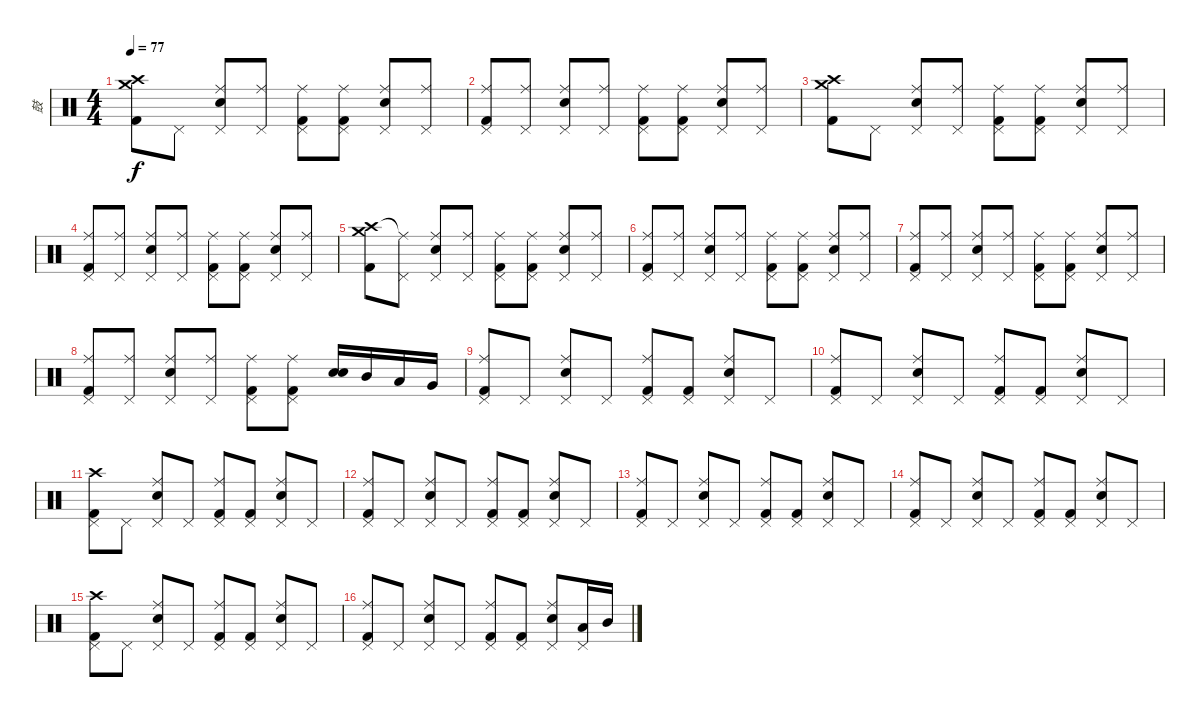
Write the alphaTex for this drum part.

\track ("鼓" "鼓") {instrument percussion}
\staff {score}
\articulation defaults
\ts (4 4)
\tempo 77
\clef neutral
\ks c
("Crash medium (hit)" "Crash high (hit)" "Kick (hit) 2").8{dy f} "Pedal Hi-Hat (hit)".8 ("Ride (middle)" "Pedal Hi-Hat (hit)" "Electric Snare (hit)").8 ("Ride (middle)" "Pedal Hi-Hat (hit)").8 ("Ride (middle)" "Pedal Hi-Hat (hit)" "Kick (hit) 2").8 ("Ride (middle)" "Pedal Hi-Hat (hit)" "Kick (hit) 2").8 ("Ride (middle)" "Pedal Hi-Hat (hit)" "Electric Snare (hit)").8 ("Ride (middle)" "Pedal Hi-Hat (hit)").8 |
("Ride (middle)" "Pedal Hi-Hat (hit)" "Kick (hit) 2").8 ("Ride (middle)" "Pedal Hi-Hat (hit)").8 ("Ride (middle)" "Pedal Hi-Hat (hit)" "Electric Snare (hit)").8 ("Ride (middle)" "Pedal Hi-Hat (hit)").8 ("Ride (middle)" "Pedal Hi-Hat (hit)" "Kick (hit) 2").8 ("Ride (middle)" "Pedal Hi-Hat (hit)" "Kick (hit) 2").8 ("Ride (middle)" "Pedal Hi-Hat (hit)" "Electric Snare (hit)").8 ("Ride (middle)" "Pedal Hi-Hat (hit)").8 |
("Crash high (hit)" "Crash medium (hit)" "Kick (hit) 2").8 "Pedal Hi-Hat (hit)".8 ("Ride (middle)" "Pedal Hi-Hat (hit)" "Electric Snare (hit)").8 ("Ride (middle)" "Pedal Hi-Hat (hit)").8 ("Ride (middle)" "Pedal Hi-Hat (hit)" "Kick (hit) 2").8 ("Ride (middle)" "Pedal Hi-Hat (hit)" "Kick (hit) 2").8 ("Ride (middle)" "Pedal Hi-Hat (hit)" "Electric Snare (hit)").8 ("Ride (middle)" "Pedal Hi-Hat (hit)").8 |
("Ride (middle)" "Pedal Hi-Hat (hit)" "Kick (hit) 2").8 ("Ride (middle)" "Pedal Hi-Hat (hit)").8 ("Ride (middle)" "Pedal Hi-Hat (hit)" "Electric Snare (hit)").8 ("Ride (middle)" "Pedal Hi-Hat (hit)").8 ("Ride (middle)" "Pedal Hi-Hat (hit)" "Kick (hit) 2").8 ("Ride (middle)" "Pedal Hi-Hat (hit)" "Kick (hit) 2").8 ("Ride (middle)" "Pedal Hi-Hat (hit)" "Electric Snare (hit)").8 ("Ride (middle)" "Pedal Hi-Hat (hit)").8 |
("Crash high (hit)" "Crash medium (hit)" "Kick (hit) 2").8 ("Ride (middle)"{t} "Pedal Hi-Hat (hit)").8 ("Ride (middle)" "Pedal Hi-Hat (hit)" "Electric Snare (hit)").8 ("Ride (middle)" "Pedal Hi-Hat (hit)").8 ("Ride (middle)" "Pedal Hi-Hat (hit)" "Kick (hit) 2").8 ("Ride (middle)" "Pedal Hi-Hat (hit)" "Kick (hit) 2").8 ("Ride (middle)" "Pedal Hi-Hat (hit)" "Electric Snare (hit)").8 ("Ride (middle)" "Pedal Hi-Hat (hit)").8 |
("Ride (middle)" "Pedal Hi-Hat (hit)" "Kick (hit) 2").8 ("Ride (middle)" "Pedal Hi-Hat (hit)").8 ("Ride (middle)" "Pedal Hi-Hat (hit)" "Electric Snare (hit)").8 ("Ride (middle)" "Pedal Hi-Hat (hit)").8 ("Ride (middle)" "Pedal Hi-Hat (hit)" "Kick (hit) 2").8 ("Ride (middle)" "Pedal Hi-Hat (hit)" "Kick (hit) 2").8 ("Ride (middle)" "Pedal Hi-Hat (hit)" "Electric Snare (hit)").8 ("Ride (middle)" "Pedal Hi-Hat (hit)").8 |
("Ride (middle)" "Pedal Hi-Hat (hit)" "Kick (hit) 2").8 ("Ride (middle)" "Pedal Hi-Hat (hit)").8 ("Ride (middle)" "Pedal Hi-Hat (hit)" "Electric Snare (hit)").8 ("Ride (middle)" "Pedal Hi-Hat (hit)").8 ("Ride (middle)" "Pedal Hi-Hat (hit)" "Kick (hit) 2").8 ("Ride (middle)" "Pedal Hi-Hat (hit)" "Kick (hit) 2").8 ("Ride (middle)" "Pedal Hi-Hat (hit)" "Electric Snare (hit)").8 ("Ride (middle)" "Pedal Hi-Hat (hit)").8 |
("Ride (middle)" "Pedal Hi-Hat (hit)" "Kick (hit) 2").8 ("Ride (middle)" "Pedal Hi-Hat (hit)").8 ("Ride (middle)" "Pedal Hi-Hat (hit)" "Electric Snare (hit)").8 ("Ride (middle)" "Pedal Hi-Hat (hit)").8 ("Ride (middle)" "Pedal Hi-Hat (hit)" "Kick (hit) 2").8 ("Ride (middle)" "Pedal Hi-Hat (hit)" "Kick (hit) 2").8 ("Electric Snare (hit)" "Electric Snare (hit)").16 "Mid Tom (hit)".16 "Low Tom (hit)".16 "Very Low Tom (hit)".16 |
("Ride (middle)" "Pedal Hi-Hat (hit)" "Kick (hit) 2").8 "Pedal Hi-Hat (hit)".8 ("Ride (middle)" "Pedal Hi-Hat (hit)" "Electric Snare (hit)").8 "Pedal Hi-Hat (hit)".8 ("Ride (middle)" "Pedal Hi-Hat (hit)" "Kick (hit) 2").8 ("Pedal Hi-Hat (hit)" "Kick (hit) 2").8 ("Ride (middle)" "Pedal Hi-Hat (hit)" "Electric Snare (hit)").8 "Pedal Hi-Hat (hit)".8 |
("Ride (middle)" "Pedal Hi-Hat (hit)" "Kick (hit) 2").8 "Pedal Hi-Hat (hit)".8 ("Ride (middle)" "Pedal Hi-Hat (hit)" "Electric Snare (hit)").8 "Pedal Hi-Hat (hit)".8 ("Ride (middle)" "Pedal Hi-Hat (hit)" "Kick (hit) 2").8 ("Pedal Hi-Hat (hit)" "Kick (hit) 2").8 ("Ride (middle)" "Pedal Hi-Hat (hit)" "Electric Snare (hit)").8 "Pedal Hi-Hat (hit)".8 |
("Crash high (hit)" "Pedal Hi-Hat (hit)" "Kick (hit) 2").8 "Pedal Hi-Hat (hit)".8 ("Ride (middle)" "Pedal Hi-Hat (hit)" "Electric Snare (hit)").8 "Pedal Hi-Hat (hit)".8 ("Ride (middle)" "Pedal Hi-Hat (hit)" "Kick (hit) 2").8 ("Pedal Hi-Hat (hit)" "Kick (hit) 2").8 ("Ride (middle)" "Pedal Hi-Hat (hit)" "Electric Snare (hit)").8 "Pedal Hi-Hat (hit)".8 |
("Ride (middle)" "Pedal Hi-Hat (hit)" "Kick (hit) 2").8 "Pedal Hi-Hat (hit)".8 ("Ride (middle)" "Pedal Hi-Hat (hit)" "Electric Snare (hit)").8 "Pedal Hi-Hat (hit)".8 ("Ride (middle)" "Pedal Hi-Hat (hit)" "Kick (hit) 2").8 ("Pedal Hi-Hat (hit)" "Kick (hit) 2").8 ("Ride (middle)" "Pedal Hi-Hat (hit)" "Electric Snare (hit)").8 "Pedal Hi-Hat (hit)".8 |
("Ride (middle)" "Pedal Hi-Hat (hit)" "Kick (hit) 2").8 "Pedal Hi-Hat (hit)".8 ("Ride (middle)" "Pedal Hi-Hat (hit)" "Electric Snare (hit)").8 "Pedal Hi-Hat (hit)".8 ("Ride (middle)" "Pedal Hi-Hat (hit)" "Kick (hit) 2").8 ("Pedal Hi-Hat (hit)" "Kick (hit) 2").8 ("Ride (middle)" "Pedal Hi-Hat (hit)" "Electric Snare (hit)").8 "Pedal Hi-Hat (hit)".8 |
("Ride (middle)" "Pedal Hi-Hat (hit)" "Kick (hit) 2").8 "Pedal Hi-Hat (hit)".8 ("Ride (middle)" "Pedal Hi-Hat (hit)" "Electric Snare (hit)").8 "Pedal Hi-Hat (hit)".8 ("Ride (middle)" "Pedal Hi-Hat (hit)" "Kick (hit) 2").8 ("Pedal Hi-Hat (hit)" "Kick (hit) 2").8 ("Ride (middle)" "Pedal Hi-Hat (hit)" "Electric Snare (hit)").8 "Pedal Hi-Hat (hit)".8 |
("Crash high (hit)" "Pedal Hi-Hat (hit)" "Kick (hit) 2").8 "Pedal Hi-Hat (hit)".8 ("Ride (middle)" "Pedal Hi-Hat (hit)" "Electric Snare (hit)").8 "Pedal Hi-Hat (hit)".8 ("Ride (middle)" "Pedal Hi-Hat (hit)" "Kick (hit) 2").8 ("Pedal Hi-Hat (hit)" "Kick (hit) 2").8 ("Ride (middle)" "Pedal Hi-Hat (hit)" "Electric Snare (hit)").8 "Pedal Hi-Hat (hit)".8 |
("Ride (middle)" "Pedal Hi-Hat (hit)" "Kick (hit) 2").8 "Pedal Hi-Hat (hit)".8 ("Ride (middle)" "Pedal Hi-Hat (hit)" "Electric Snare (hit)").8 "Pedal Hi-Hat (hit)".8 ("Ride (middle)" "Pedal Hi-Hat (hit)" "Kick (hit) 2").8 ("Pedal Hi-Hat (hit)" "Kick (hit) 2").8 ("Ride (middle)" "Pedal Hi-Hat (hit)" "Electric Snare (hit)").8 ("Pedal Hi-Hat (hit)" "Low Tom (hit)").16 "Mid Tom (hit)".16
